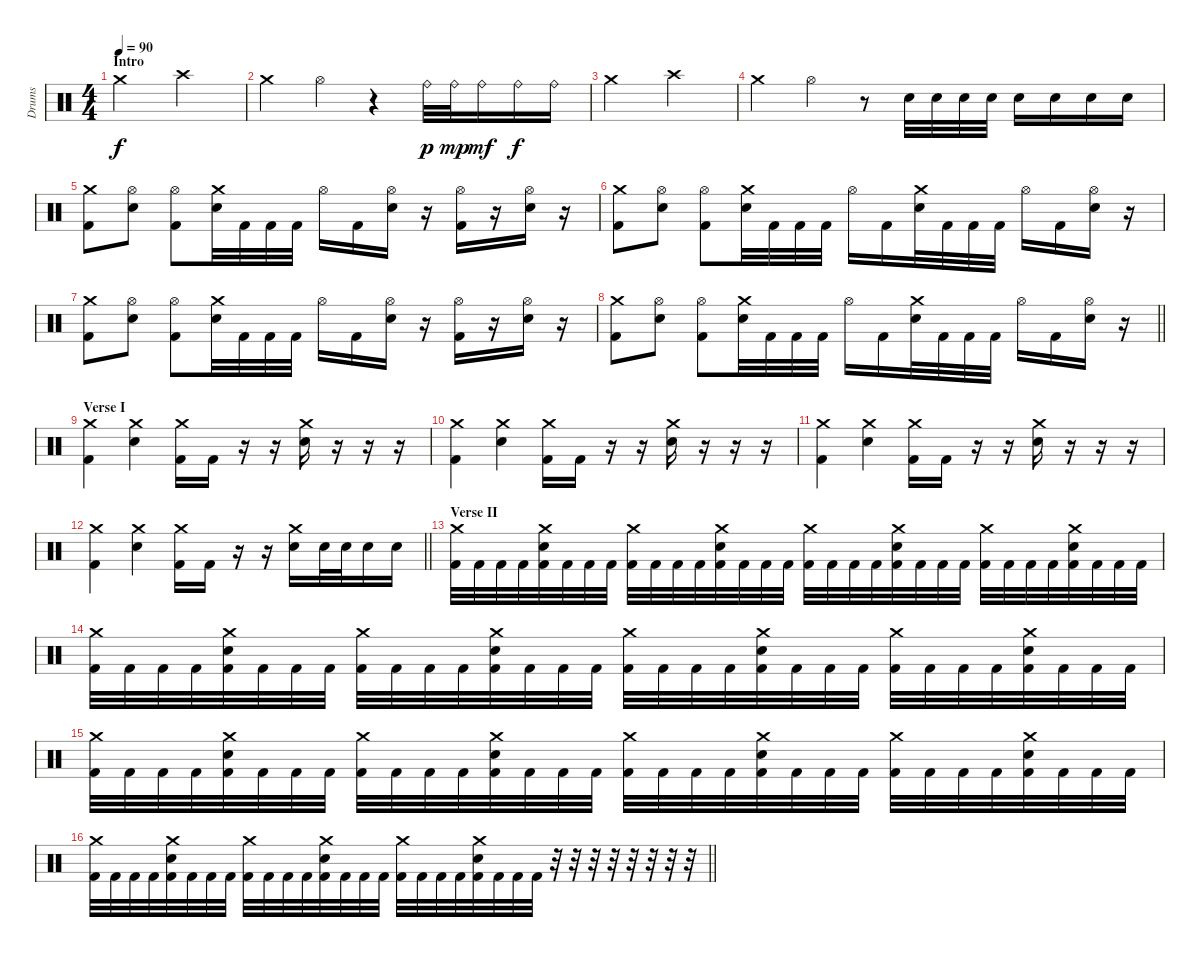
\track ("Drums" "Drums") {instrument percussion}
\staff {score}
\articulation defaults
\ts (4 4)
\section ("" "Intro")
\tempo 90
\clef neutral
\ks c "Crash medium (hit)".2{dy f} "Crash high (hit)".2
|
"Crash medium (hit)".4 "Hi-Hat (open)".4 r.4 "Ride (bell)".32{dy p} "Ride (bell)".32{dy mp} "Ride (bell)".16{dy mf} "Ride (bell)".16{dy f} "Ride (bell)".16 |
"Crash medium (hit)".2 "Crash high (hit)".2 |
"Crash medium (hit)".4 "Hi-Hat (open)".4 r.8 "Electric Snare (hit)".32 "Electric Snare (hit)".32 "Electric Snare (hit)".32 "Electric Snare (hit)".32 "Electric Snare (hit)".16 "Electric Snare (hit)".16 "Electric Snare (hit)".16 "Electric Snare (hit)".16 |
("Crash medium (hit)" "Kick (hit) 2").8 ("Hi-Hat (open)" "Electric Snare (hit)").8 ("Hi-Hat (open)" "Kick (hit) 2").8 ("Crash medium (hit)" "Electric Snare (hit)").32 "Kick (hit) 2".32 "Kick (hit) 2".32 "Kick (hit) 2".32 "Hi-Hat (open)".16 "Kick (hit) 2".16 ("Hi-Hat (open)" "Electric Snare (hit)").16 r.16 ("Hi-Hat (open)" "Kick (hit) 2").16 r.16 ("Hi-Hat (open)" "Electric Snare (hit)").16 r.16 |
("Crash medium (hit)" "Kick (hit) 2").8 ("Hi-Hat (open)" "Electric Snare (hit)").8 ("Hi-Hat (open)" "Kick (hit) 2").8 ("Crash medium (hit)" "Electric Snare (hit)").32 "Kick (hit) 2".32 "Kick (hit) 2".32 "Kick (hit) 2".32 "Hi-Hat (open)".16 "Kick (hit) 2".16 ("Crash medium (hit)" "Electric Snare (hit)").32 "Kick (hit) 2".32 "Kick (hit) 2".32 "Kick (hit) 2".32 "Hi-Hat (open)".16 "Kick (hit) 2".16 ("Hi-Hat (open)" "Electric Snare (hit)").16 r.16 |
("Crash medium (hit)" "Kick (hit) 2").8 ("Hi-Hat (open)" "Electric Snare (hit)").8 ("Hi-Hat (open)" "Kick (hit) 2").8 ("Crash medium (hit)" "Electric Snare (hit)").32 "Kick (hit) 2".32 "Kick (hit) 2".32 "Kick (hit) 2".32 "Hi-Hat (open)".16 "Kick (hit) 2".16 ("Hi-Hat (open)" "Electric Snare (hit)").16 r.16 ("Hi-Hat (open)" "Kick (hit) 2").16 r.16 ("Hi-Hat (open)" "Electric Snare (hit)").16 r.16 |
\barLineRight lightlight
("Crash medium (hit)" "Kick (hit) 2").8 ("Hi-Hat (open)" "Electric Snare (hit)").8 ("Hi-Hat (open)" "Kick (hit) 2").8 ("Crash medium (hit)" "Electric Snare (hit)").32 "Kick (hit) 2".32 "Kick (hit) 2".32 "Kick (hit) 2".32 "Hi-Hat (open)".16 "Kick (hit) 2".16 ("Crash medium (hit)" "Electric Snare (hit)").32 "Kick (hit) 2".32 "Kick (hit) 2".32 "Kick (hit) 2".32 "Hi-Hat (open)".16 "Kick (hit) 2".16 ("Hi-Hat (open)" "Electric Snare (hit)").16 r.16 |
\section ("" "Verse I")
("Crash medium (hit)" "Kick (hit) 2").4 ("Crash medium (hit)" "Electric Snare (hit)").4 ("Crash medium (hit)" "Kick (hit) 2").16 "Kick (hit) 2".16 r.16 r.16 ("Crash medium (hit)" "Electric Snare (hit)").16 r.16 r.16 r.16 |
("Crash medium (hit)" "Kick (hit) 2").4 ("Crash medium (hit)" "Electric Snare (hit)").4 ("Crash medium (hit)" "Kick (hit) 2").16 "Kick (hit) 2".16 r.16 r.16 ("Crash medium (hit)" "Electric Snare (hit)").16 r.16 r.16 r.16 |
("Crash medium (hit)" "Kick (hit) 2").4 ("Crash medium (hit)" "Electric Snare (hit)").4 ("Crash medium (hit)" "Kick (hit) 2").16 "Kick (hit) 2".16 r.16 r.16 ("Crash medium (hit)" "Electric Snare (hit)").16 r.16 r.16 r.16 |
\barLineRight lightlight
("Crash medium (hit)" "Kick (hit) 2").4 ("Crash medium (hit)" "Electric Snare (hit)").4 ("Crash medium (hit)" "Kick (hit) 2").16 "Kick (hit) 2".16 r.16 r.16 ("Crash medium (hit)" "Electric Snare (hit)").16 "Electric Snare (hit)".32 "Electric Snare (hit)".32 "Electric Snare (hit)".16 "Electric Snare (hit)".16 |
\section ("" "Verse II")
("Crash medium (hit)" "Kick (hit) 2").32 "Kick (hit) 2".32 "Kick (hit) 2".32 "Kick (hit) 2".32 ("Crash medium (hit)" "Electric Snare (hit)" "Kick (hit) 2").32 "Kick (hit) 2".32 "Kick (hit) 2".32 "Kick (hit) 2".32 ("Crash medium (hit)" "Kick (hit) 2").32 "Kick (hit) 2".32 "Kick (hit) 2".32 "Kick (hit) 2".32 ("Crash medium (hit)" "Electric Snare (hit)" "Kick (hit) 2").32 "Kick (hit) 2".32 "Kick (hit) 2".32 "Kick (hit) 2".32 ("Crash medium (hit)" "Kick (hit) 2").32 "Kick (hit) 2".32 "Kick (hit) 2".32 "Kick (hit) 2".32 ("Crash medium (hit)" "Electric Snare (hit)" "Kick (hit) 2").32 "Kick (hit) 2".32 "Kick (hit) 2".32 "Kick (hit) 2".32 ("Crash medium (hit)" "Kick (hit) 2").32 "Kick (hit) 2".32 "Kick (hit) 2".32 "Kick (hit) 2".32 ("Crash medium (hit)" "Electric Snare (hit)" "Kick (hit) 2").32 "Kick (hit) 2".32 "Kick (hit) 2".32 "Kick (hit) 2".32 |
("Crash medium (hit)" "Kick (hit) 2").32 "Kick (hit) 2".32 "Kick (hit) 2".32 "Kick (hit) 2".32 ("Crash medium (hit)" "Electric Snare (hit)" "Kick (hit) 2").32 "Kick (hit) 2".32 "Kick (hit) 2".32 "Kick (hit) 2".32 ("Crash medium (hit)" "Kick (hit) 2").32 "Kick (hit) 2".32 "Kick (hit) 2".32 "Kick (hit) 2".32 ("Crash medium (hit)" "Electric Snare (hit)" "Kick (hit) 2").32 "Kick (hit) 2".32 "Kick (hit) 2".32 "Kick (hit) 2".32 ("Crash medium (hit)" "Kick (hit) 2").32 "Kick (hit) 2".32 "Kick (hit) 2".32 "Kick (hit) 2".32 ("Crash medium (hit)" "Electric Snare (hit)" "Kick (hit) 2").32 "Kick (hit) 2".32 "Kick (hit) 2".32 "Kick (hit) 2".32 ("Crash medium (hit)" "Kick (hit) 2").32 "Kick (hit) 2".32 "Kick (hit) 2".32 "Kick (hit) 2".32 ("Crash medium (hit)" "Electric Snare (hit)" "Kick (hit) 2").32 "Kick (hit) 2".32 "Kick (hit) 2".32 "Kick (hit) 2".32 |
("Crash medium (hit)" "Kick (hit) 2").32 "Kick (hit) 2".32 "Kick (hit) 2".32 "Kick (hit) 2".32 ("Crash medium (hit)" "Electric Snare (hit)" "Kick (hit) 2").32 "Kick (hit) 2".32 "Kick (hit) 2".32 "Kick (hit) 2".32 ("Crash medium (hit)" "Kick (hit) 2").32 "Kick (hit) 2".32 "Kick (hit) 2".32 "Kick (hit) 2".32 ("Crash medium (hit)" "Electric Snare (hit)" "Kick (hit) 2").32 "Kick (hit) 2".32 "Kick (hit) 2".32 "Kick (hit) 2".32 ("Crash medium (hit)" "Kick (hit) 2").32 "Kick (hit) 2".32 "Kick (hit) 2".32 "Kick (hit) 2".32 ("Crash medium (hit)" "Electric Snare (hit)" "Kick (hit) 2").32 "Kick (hit) 2".32 "Kick (hit) 2".32 "Kick (hit) 2".32 ("Crash medium (hit)" "Kick (hit) 2").32 "Kick (hit) 2".32 "Kick (hit) 2".32 "Kick (hit) 2".32 ("Crash medium (hit)" "Electric Snare (hit)" "Kick (hit) 2").32 "Kick (hit) 2".32 "Kick (hit) 2".32 "Kick (hit) 2".32 |
\barLineRight lightlight
("Crash medium (hit)" "Kick (hit) 2").32 "Kick (hit) 2".32 "Kick (hit) 2".32 "Kick (hit) 2".32 ("Crash medium (hit)" "Electric Snare (hit)" "Kick (hit) 2").32 "Kick (hit) 2".32 "Kick (hit) 2".32 "Kick (hit) 2".32 ("Crash medium (hit)" "Kick (hit) 2").32 "Kick (hit) 2".32 "Kick (hit) 2".32 "Kick (hit) 2".32 ("Crash medium (hit)" "Electric Snare (hit)" "Kick (hit) 2").32 "Kick (hit) 2".32 "Kick (hit) 2".32 "Kick (hit) 2".32 ("Crash medium (hit)" "Kick (hit) 2").32 "Kick (hit) 2".32 "Kick (hit) 2".32 "Kick (hit) 2".32 ("Crash medium (hit)" "Electric Snare (hit)" "Kick (hit) 2").32 "Kick (hit) 2".32 "Kick (hit) 2".32 "Kick (hit) 2".32 r.32 r.32 r.32 r.32 r.32 r.32 r.32 r.32
